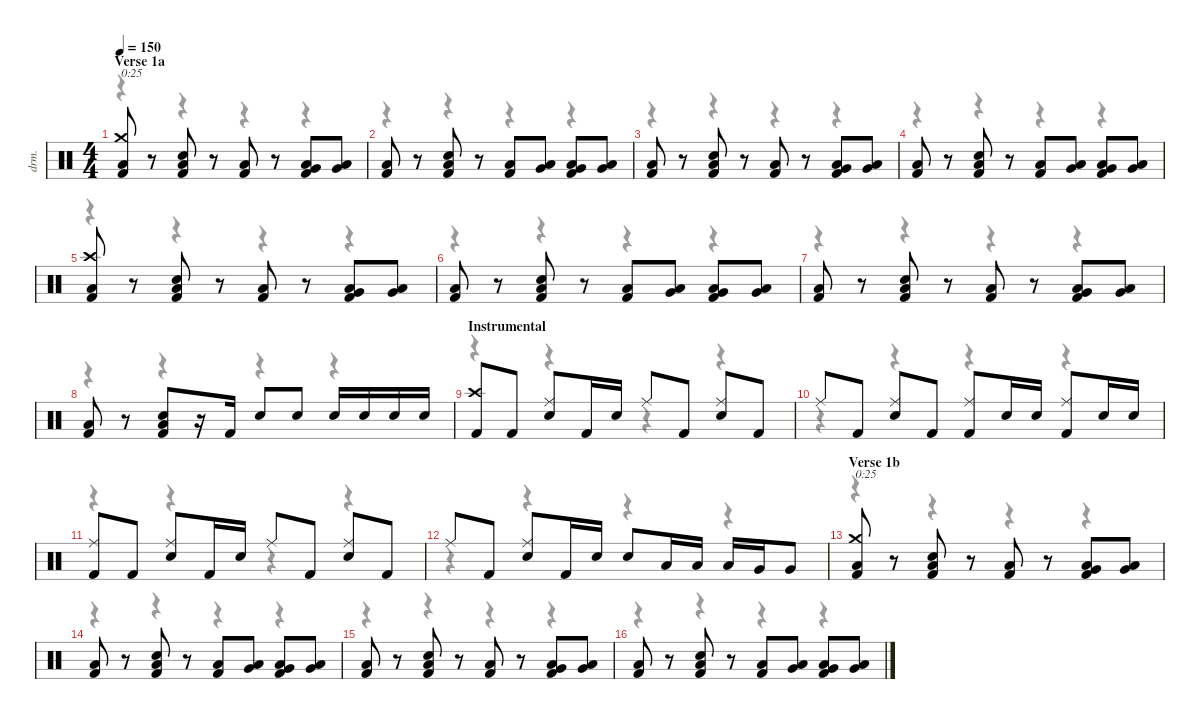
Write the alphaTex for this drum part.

\defaultSystemsLayout 4
\hideDynamics
\bracketExtendMode nobrackets
\otherSystemsTrackNameOrientation horizontal
\track ("Drums" "drm.") {instrument percussion}
\staff {score}
\articulation defaults
\voice
\ts (4 4)
\section ("" "Verse 1a")
\tempo 150
\clef neutral
\ks c
("Crash medium (hit)" "Low Floor Tom (hit)" "Kick (hit) 2").8{txt "0:25" dy fff beam Up} r.8{beam Up} ("Low Floor Tom (hit)" "Snare (hit) 2" "Kick (hit) 2").8{beam Up} r.8{beam Up} ("Low Floor Tom (hit)" "Kick (hit) 2").8{beam Up} r.8{beam Up} ("Low Floor Tom (hit)" "Very Low Tom (hit)" "Kick (hit) 2").8{beam Up} ("Low Floor Tom (hit)" "Very Low Tom (hit)").8{beam Up} |
("Low Floor Tom (hit)" "Kick (hit) 2").8{beam Up} r.8{beam Up} ("Low Floor Tom (hit)" "Snare (hit) 2" "Kick (hit) 2").8{beam Up} r.8{beam Up} ("Low Floor Tom (hit)" "Kick (hit) 2").8{beam Up} ("Low Floor Tom (hit)" "Very Low Tom (hit)").8{beam Up} ("Low Floor Tom (hit)" "Very Low Tom (hit)" "Kick (hit) 2").8{beam Up} ("Low Floor Tom (hit)" "Very Low Tom (hit)").8{beam Up} |
("Low Floor Tom (hit)" "Kick (hit) 2").8{beam Up} r.8{beam Up} ("Low Floor Tom (hit)" "Snare (hit) 2" "Kick (hit) 2").8{beam Up} r.8{beam Up} ("Low Floor Tom (hit)" "Kick (hit) 2").8{beam Up} r.8{beam Up} ("Low Floor Tom (hit)" "Very Low Tom (hit)" "Kick (hit) 2").8{beam Up} ("Low Floor Tom (hit)" "Very Low Tom (hit)").8{beam Up} |
("Low Floor Tom (hit)" "Kick (hit) 2").8{beam Up} r.8{beam Up} ("Low Floor Tom (hit)" "Snare (hit) 2" "Kick (hit) 2").8{beam Up} r.8{beam Up} ("Low Floor Tom (hit)" "Kick (hit) 2").8{beam Up} ("Low Floor Tom (hit)" "Very Low Tom (hit)").8{beam Up} ("Low Floor Tom (hit)" "Very Low Tom (hit)" "Kick (hit) 2").8{beam Up} ("Low Floor Tom (hit)" "Very Low Tom (hit)").8{beam Up} |
("Crash high (hit)" "Low Floor Tom (hit)" "Kick (hit) 2").8{beam Up} r.8{beam Up} ("Low Floor Tom (hit)" "Snare (hit) 2" "Kick (hit) 2").8{beam Up} r.8{beam Up} ("Low Floor Tom (hit)" "Kick (hit) 2").8{beam Up} r.8{beam Up} ("Low Floor Tom (hit)" "Very Low Tom (hit)" "Kick (hit) 2").8{beam Up} ("Low Floor Tom (hit)" "Very Low Tom (hit)").8{beam Up} |
("Low Floor Tom (hit)" "Kick (hit) 2").8{beam Up} r.8{beam Up} ("Low Floor Tom (hit)" "Snare (hit) 2" "Kick (hit) 2").8{beam Up} r.8{beam Up} ("Low Floor Tom (hit)" "Kick (hit) 2").8{beam Up} ("Low Floor Tom (hit)" "Very Low Tom (hit)").8{beam Up} ("Low Floor Tom (hit)" "Very Low Tom (hit)" "Kick (hit) 2").8{beam Up} ("Low Floor Tom (hit)" "Very Low Tom (hit)").8{beam Up} |
("Low Floor Tom (hit)" "Kick (hit) 2").8{beam Up} r.8{beam Up} ("Low Floor Tom (hit)" "Snare (hit) 2" "Kick (hit) 2").8{beam Up} r.8{beam Up} ("Low Floor Tom (hit)" "Kick (hit) 2").8{beam Up} r.8{beam Up} ("Low Floor Tom (hit)" "Very Low Tom (hit)" "Kick (hit) 2").8{beam Up} ("Low Floor Tom (hit)" "Very Low Tom (hit)").8{beam Up} |
("Low Floor Tom (hit)" "Kick (hit) 2").8{beam Up} r.8{beam Up} ("Low Floor Tom (hit)" "Snare (hit) 2" "Kick (hit) 2").8{beam Up} r.16{beam Up} "Kick (hit) 2".16{beam Up} "Snare (hit) 2".8{beam Up} "Snare (hit) 2".8{beam Up} "Snare (hit) 2".16{beam Up} "Snare (hit) 2".16{beam Up} "Snare (hit) 2".16{beam Up} "Snare (hit) 2".16{beam Up} |
\section ("" "Instrumental")
("Crash high (hit)" "Kick (hit) 2").8{beam Up} "Kick (hit) 2".8{beam Up} ("Ride (middle)" "Snare (hit) 2").8{dy f beam Up} "Kick (hit) 2".16{dy fff beam Up} "Snare (hit) 2".16{beam Up} "Ride (middle)".8{dy f beam Up} "Kick (hit) 2".8{dy fff beam Up} ("Ride (middle)" "Snare (hit) 2").8{dy f beam Up} "Kick (hit) 2".8{dy fff beam Up} |
"Ride (middle)".8{dy f beam Up} "Kick (hit) 2".8{dy fff beam Up} ("Ride (middle)" "Snare (hit) 2").8{dy f beam Up} "Kick (hit) 2".8{dy fff beam Up} ("Ride (middle)" "Kick (hit) 2").8{dy f beam Up} "Snare (hit) 2".16{dy fff beam Up} "Snare (hit) 2".16{beam Up} ("Ride (middle)" "Kick (hit) 2").8{dy f beam Up} "Snare (hit) 2".16{dy fff beam Up} "Snare (hit) 2".16{beam Up} |
("Ride (middle)" "Kick (hit) 2").8{dy f beam Up} "Kick (hit) 2".8{dy fff beam Up} ("Ride (middle)" "Snare (hit) 2").8{dy f beam Up} "Kick (hit) 2".16{dy fff beam Up} "Snare (hit) 2".16{beam Up} "Ride (middle)".8{dy f beam Up} "Kick (hit) 2".8{dy fff beam Up} ("Ride (middle)" "Snare (hit) 2").8{dy f beam Up} "Kick (hit) 2".8{dy fff beam Up} |
"Ride (middle)".8{dy f beam Up} "Kick (hit) 2".8{dy fff beam Up} ("Ride (middle)" "Snare (hit) 2").8{dy f beam Up} "Kick (hit) 2".16{dy fff beam Up} "Snare (hit) 2".16{beam Up} "Snare (hit) 2".8{beam Up} "Low Tom (hit)".16{beam Up} "Low Tom (hit)".16{beam Up} "Low Tom (hit)".16{beam Up} "Very Low Tom (hit)".16{beam Up} "Very Low Tom (hit)".8{beam Up} |
\section ("" "Verse 1b")
("Crash medium (hit)" "Low Floor Tom (hit)" "Kick (hit) 2").8{txt "0:25" beam Up} r.8{beam Up} ("Low Floor Tom (hit)" "Snare (hit) 2" "Kick (hit) 2").8{beam Up} r.8{beam Up} ("Low Floor Tom (hit)" "Kick (hit) 2").8{beam Up} r.8{beam Up} ("Low Floor Tom (hit)" "Very Low Tom (hit)" "Kick (hit) 2").8{beam Up} ("Low Floor Tom (hit)" "Very Low Tom (hit)").8{beam Up} |
("Low Floor Tom (hit)" "Kick (hit) 2").8{beam Up} r.8{beam Up} ("Low Floor Tom (hit)" "Snare (hit) 2" "Kick (hit) 2").8{beam Up} r.8{beam Up} ("Low Floor Tom (hit)" "Kick (hit) 2").8{beam Up} ("Low Floor Tom (hit)" "Very Low Tom (hit)").8{beam Up} ("Low Floor Tom (hit)" "Very Low Tom (hit)" "Kick (hit) 2").8{beam Up} ("Low Floor Tom (hit)" "Very Low Tom (hit)").8{beam Up} |
("Low Floor Tom (hit)" "Kick (hit) 2").8{beam Up} r.8{beam Up} ("Low Floor Tom (hit)" "Snare (hit) 2" "Kick (hit) 2").8{beam Up} r.8{beam Up} ("Low Floor Tom (hit)" "Kick (hit) 2").8{beam Up} r.8{beam Up} ("Low Floor Tom (hit)" "Very Low Tom (hit)" "Kick (hit) 2").8{beam Up} ("Low Floor Tom (hit)" "Very Low Tom (hit)").8{beam Up} |
("Low Floor Tom (hit)" "Kick (hit) 2").8{beam Up} r.8{beam Up} ("Low Floor Tom (hit)" "Snare (hit) 2" "Kick (hit) 2").8{beam Up} r.8{beam Up} ("Low Floor Tom (hit)" "Kick (hit) 2").8{beam Up} ("Low Floor Tom (hit)" "Very Low Tom (hit)").8{beam Up} ("Low Floor Tom (hit)" "Very Low Tom (hit)" "Kick (hit) 2").8{beam Up} ("Low Floor Tom (hit)" "Very Low Tom (hit)").8{beam Up}
\voice
\clef neutral
\ottava regular
\simile none
\ks c
r.4{dy mf beam Down} r.4{beam Down} r.4{beam Down} r.4{beam Down} |
r.4{beam Down} r.4{beam Down} r.4{beam Down} r.4{beam Down} |
r.4{beam Down} r.4{beam Down} r.4{beam Down} r.4{beam Down} |
r.4{beam Down} r.4{beam Down} r.4{beam Down} r.4{beam Down} |
r.4{beam Down} r.4{beam Down} r.4{beam Down} r.4{beam Down} |
r.4{beam Down} r.4{beam Down} r.4{beam Down} r.4{beam Down} |
r.4{beam Down} r.4{beam Down} r.4{beam Down} r.4{beam Down} |
r.4{beam Down} r.4{beam Down} r.4{beam Down} r.4{beam Down} |
r.4{beam Down} r.4{beam Down} r.4{beam Down} r.4{beam Down} |
r.4{beam Down} r.4{beam Down} r.4{beam Down} r.4{beam Down} |
r.4{beam Down} r.4{beam Down} r.4{beam Down} r.4{beam Down} |
r.4{beam Down} r.4{beam Down} r.4{beam Down} r.4{beam Down} |
r.4{beam Down} r.4{beam Down} r.4{beam Down} r.4{beam Down} |
r.4{beam Down} r.4{beam Down} r.4{beam Down} r.4{beam Down} |
r.4{beam Down} r.4{beam Down} r.4{beam Down} r.4{beam Down} |
r.4{beam Down} r.4{beam Down} r.4{beam Down} r.4{beam Down}
